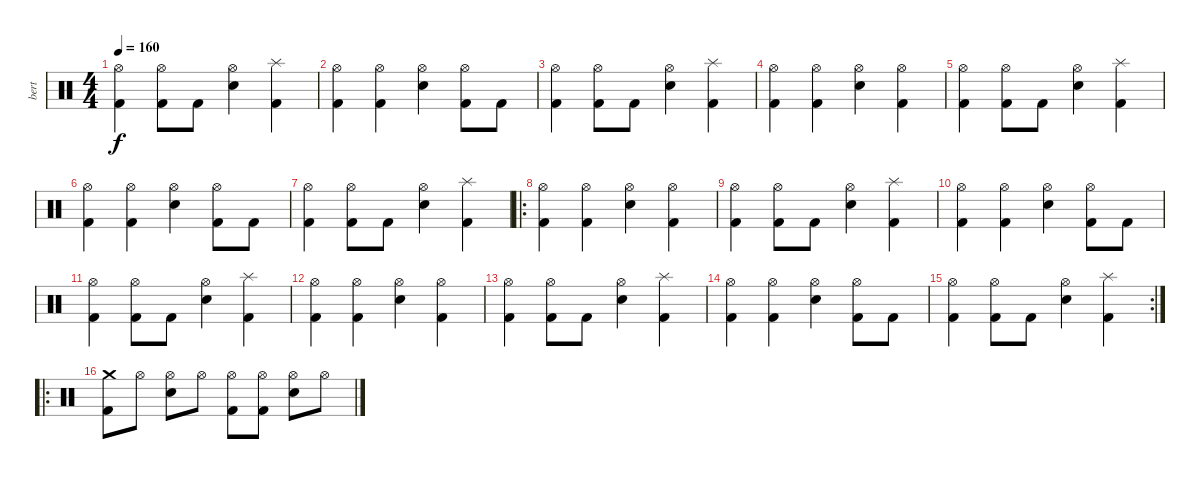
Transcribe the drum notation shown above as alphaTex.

\track ("bert" "bert") {instrument percussion}
\staff {score}
\articulation defaults
\ts (4 4)
\tempo 160
\clef neutral
\ks c
("Hi-Hat (open)" "Kick (hit) 2").4{dy f} ("Hi-Hat (open)" "Kick (hit) 2").8 "Kick (hit) 2".8 ("Hi-Hat (open)" "Snare (hit) 2").4 ("Splash (hit)" "Kick (hit) 2").4 |
("Hi-Hat (open)" "Kick (hit) 2").4 ("Hi-Hat (open)" "Kick (hit) 2").4 ("Hi-Hat (open)" "Snare (hit) 2").4 ("Hi-Hat (open)" "Kick (hit) 2").8 "Kick (hit) 2".8 |
("Hi-Hat (open)" "Kick (hit) 2").4 ("Hi-Hat (open)" "Kick (hit) 2").8 "Kick (hit) 2".8 ("Hi-Hat (open)" "Snare (hit) 2").4 ("Splash (hit)" "Kick (hit) 2").4 |
("Hi-Hat (open)" "Kick (hit) 2").4 ("Hi-Hat (open)" "Kick (hit) 2").4 ("Hi-Hat (open)" "Snare (hit) 2").4 ("Hi-Hat (open)" "Kick (hit) 2").4 |
("Hi-Hat (open)" "Kick (hit) 2").4 ("Hi-Hat (open)" "Kick (hit) 2").8 "Kick (hit) 2".8 ("Hi-Hat (open)" "Snare (hit) 2").4 ("Splash (hit)" "Kick (hit) 2").4 |
("Hi-Hat (open)" "Kick (hit) 2").4 ("Hi-Hat (open)" "Kick (hit) 2").4 ("Hi-Hat (open)" "Snare (hit) 2").4 ("Hi-Hat (open)" "Kick (hit) 2").8 "Kick (hit) 2".8 |
("Hi-Hat (open)" "Kick (hit) 2").4 ("Hi-Hat (open)" "Kick (hit) 2").8 "Kick (hit) 2".8 ("Hi-Hat (open)" "Snare (hit) 2").4 ("Splash (hit)" "Kick (hit) 2").4 |
\ro
("Hi-Hat (open)" "Kick (hit) 2").4 ("Hi-Hat (open)" "Kick (hit) 2").4 ("Hi-Hat (open)" "Snare (hit) 2").4 ("Hi-Hat (open)" "Kick (hit) 2").4 |
("Hi-Hat (open)" "Kick (hit) 2").4 ("Hi-Hat (open)" "Kick (hit) 2").8 "Kick (hit) 2".8 ("Hi-Hat (open)" "Snare (hit) 2").4 ("Splash (hit)" "Kick (hit) 2").4 |
("Hi-Hat (open)" "Kick (hit) 2").4 ("Hi-Hat (open)" "Kick (hit) 2").4 ("Hi-Hat (open)" "Snare (hit) 2").4 ("Hi-Hat (open)" "Kick (hit) 2").8 "Kick (hit) 2".8 |
("Hi-Hat (open)" "Kick (hit) 2").4 ("Hi-Hat (open)" "Kick (hit) 2").8 "Kick (hit) 2".8 ("Hi-Hat (open)" "Snare (hit) 2").4 ("Splash (hit)" "Kick (hit) 2").4 |
("Hi-Hat (open)" "Kick (hit) 2").4 ("Hi-Hat (open)" "Kick (hit) 2").4 ("Hi-Hat (open)" "Snare (hit) 2").4 ("Hi-Hat (open)" "Kick (hit) 2").4 |
("Hi-Hat (open)" "Kick (hit) 2").4 ("Hi-Hat (open)" "Kick (hit) 2").8 "Kick (hit) 2".8 ("Hi-Hat (open)" "Snare (hit) 2").4 ("Splash (hit)" "Kick (hit) 2").4 |
("Hi-Hat (open)" "Kick (hit) 2").4 ("Hi-Hat (open)" "Kick (hit) 2").4 ("Hi-Hat (open)" "Snare (hit) 2").4 ("Hi-Hat (open)" "Kick (hit) 2").8 "Kick (hit) 2".8 |
\rc 2
("Hi-Hat (open)" "Kick (hit) 2").4 ("Hi-Hat (open)" "Kick (hit) 2").8 "Kick (hit) 2".8 ("Hi-Hat (open)" "Snare (hit) 2").4 ("Splash (hit)" "Kick (hit) 2").4 |
\ro
("Crash medium (hit)" "Kick (hit) 2").8 "Hi-Hat (open)".8 ("Hi-Hat (open)" "Snare (hit) 2").8 "Hi-Hat (open)".8 ("Hi-Hat (open)" "Kick (hit) 2").8 ("Hi-Hat (open)" "Kick (hit) 2").8 ("Hi-Hat (open)" "Snare (hit) 2").8 "Hi-Hat (open)".8
